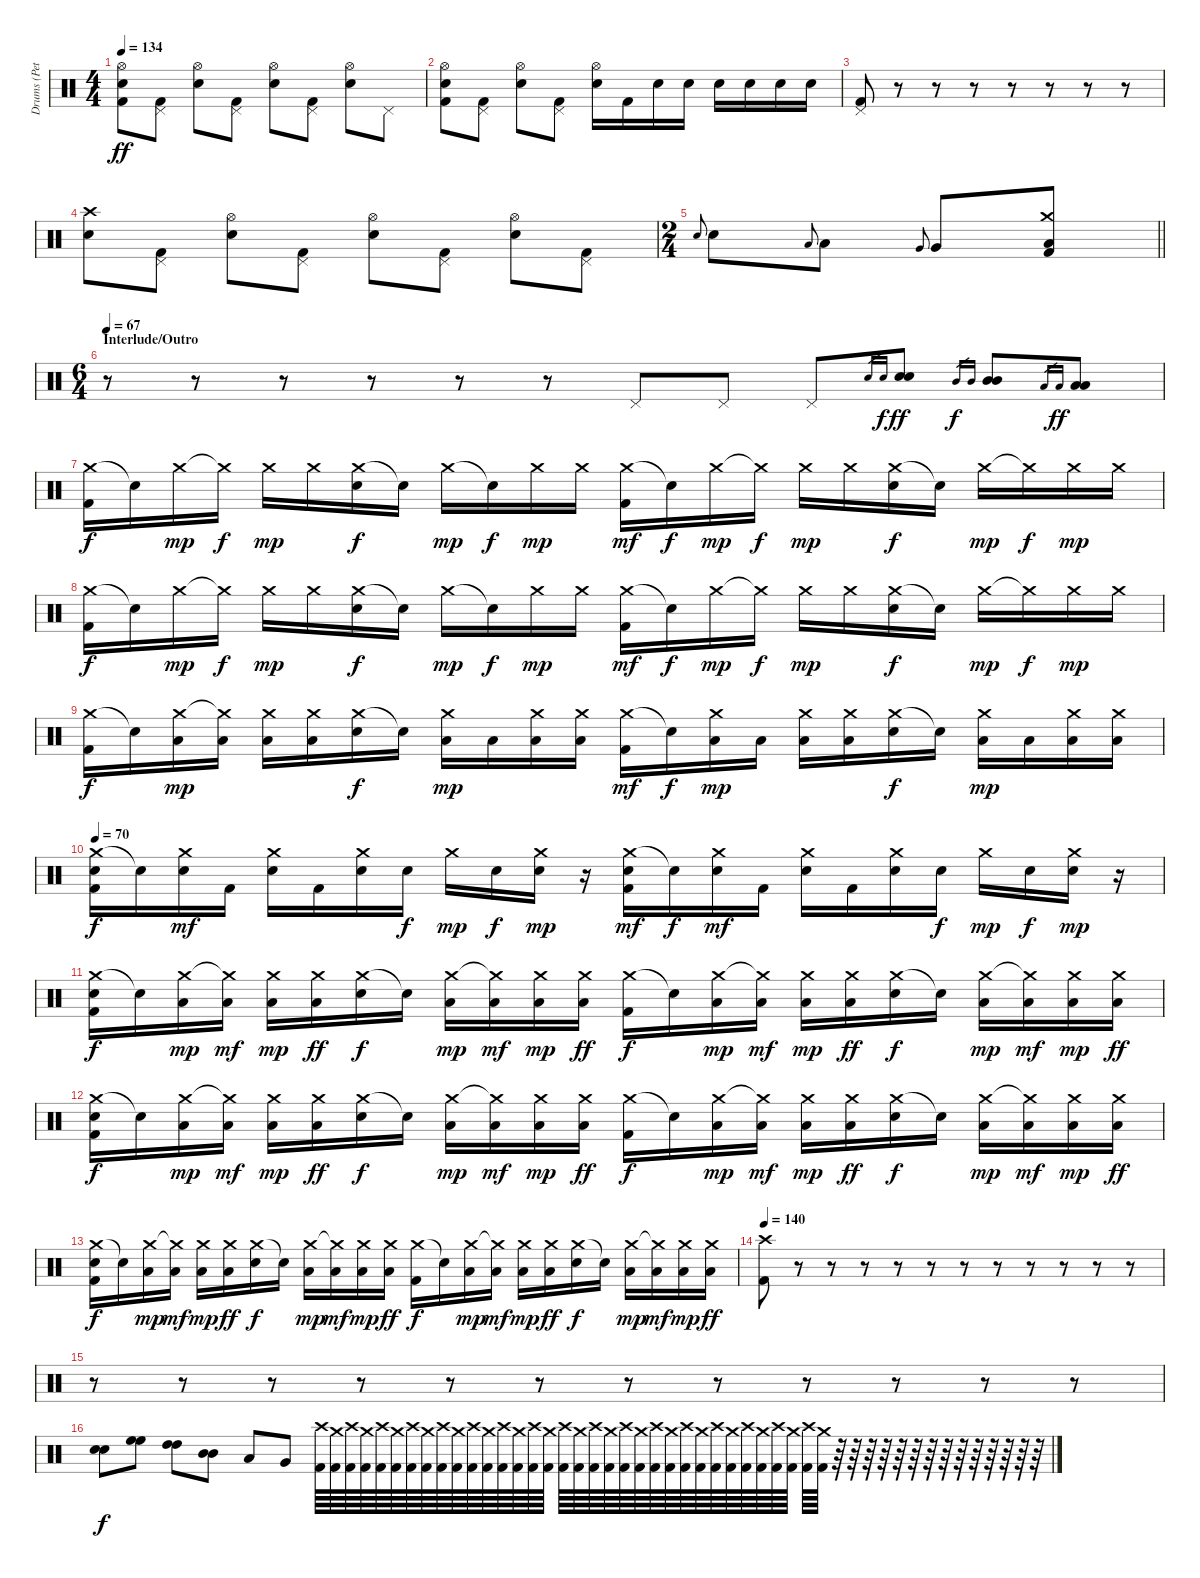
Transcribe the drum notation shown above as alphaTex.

\track ("Drums (Peter)" "Drums (Pet") {instrument percussion}
\staff {score}
\articulation defaults
\ts (4 4)
\tempo 134
\clef neutral
\ks c
("Hi-Hat (open)" "Electric Snare (hit)" "Kick (hit) 2").8{dy ff} ("Pedal Hi-Hat (hit)" "Kick (hit) 2").8 ("Hi-Hat (open)" "Electric Snare (hit)").8 ("Pedal Hi-Hat (hit)" "Kick (hit) 2").8 ("Hi-Hat (open)" "Electric Snare (hit)").8 ("Pedal Hi-Hat (hit)" "Kick (hit) 2").8 ("Hi-Hat (open)" "Electric Snare (hit)").8 "Pedal Hi-Hat (hit)".8 |
("Hi-Hat (open)" "Electric Snare (hit)" "Kick (hit) 2").8 ("Pedal Hi-Hat (hit)" "Kick (hit) 2").8 ("Hi-Hat (open)" "Electric Snare (hit)").8 ("Pedal Hi-Hat (hit)" "Kick (hit) 2").8 ("Hi-Hat (open)" "Electric Snare (hit)").16 "Kick (hit) 2".16 "Electric Snare (hit)".16 "Electric Snare (hit)".16 "Electric Snare (hit)".16 "Electric Snare (hit)".16 "Electric Snare (hit)".16 "Electric Snare (hit)".16 |
("Pedal Hi-Hat (hit)" "Kick (hit) 2").8 r.8 r.8 r.8 r.8 r.8 r.8 r.8 |
("Crash high (hit)" "Electric Snare (hit)").8 ("Pedal Hi-Hat (hit)" "Kick (hit) 2").8 ("Hi-Hat (open)" "Electric Snare (hit)").8 ("Pedal Hi-Hat (hit)" "Kick (hit) 2").8 ("Hi-Hat (open)" "Electric Snare (hit)").8 ("Pedal Hi-Hat (hit)" "Kick (hit) 2").8 ("Hi-Hat (open)" "Electric Snare (hit)").8 ("Pedal Hi-Hat (hit)" "Kick (hit) 2").8 |
\ts (2 4)
\barLineRight lightlight "Electric Snare (hit)".8{gr onbeat} "Electric Snare (hit)".8 "Low Tom (hit)".8{gr onbeat} "Low Tom (hit)".8 "Very Low Tom (hit)".8{gr onbeat} "Very Low Tom (hit)".8
("Crash medium (hit)" "Low Floor Tom (hit)" "Kick (hit) 2").8 |
\ts (6 4)
\section ("" "Interlude/Outro")
\tempo 67
r.8 r.8 r.8 r.8 r.8 r.8 "Pedal Hi-Hat (hit)".8 "Pedal Hi-Hat (hit)".8 "Pedal Hi-Hat (hit)".8 "Electric Snare (hit)".16{gr} "Electric Snare (hit)".16{gr dy f} ("Electric Snare (hit)" "Electric Snare (hit)").8{dy ff} "Mid Tom (hit)".16{gr dy f} "Mid Tom (hit)".16{gr} ("Mid Tom (hit)" "Mid Tom (hit)").8 "Low Tom (hit)".16{gr} "Low Tom (hit)".16{gr dy ff} ("Low Tom (hit)" "Low Tom (hit)").8 |
("Crash medium (hit)" "Kick (hit) 2").16{dy f} "Snare (hit)"{t}.16 "Crash medium (hit)".16{dy mp} "Crash medium (hit)"{t}.16{dy f} "Crash medium (hit)".16{dy mp} "Crash medium (hit)".16 ("Crash medium (hit)" "Electric Snare (hit)").16{dy f} "Snare (hit)"{t}.16 "Crash medium (hit)".16{dy mp} "Snare (hit)"{t}.16{dy f} "Crash medium (hit)".16{dy mp} "Crash medium (hit)".16 ("Crash medium (hit)" "Kick (hit) 2").16{dy mf} "Snare (hit)"{t}.16{dy f} "Crash medium (hit)".16{dy mp} "Crash medium (hit)"{t}.16{dy f} "Crash medium (hit)".16{dy mp} "Crash medium (hit)".16 ("Crash medium (hit)" "Electric Snare (hit)").16{dy f} "Snare (hit)"{t}.16 "Crash medium (hit)".16{dy mp} "Crash medium (hit)"{t}.16{dy f} "Crash medium (hit)".16{dy mp} "Crash medium (hit)".16 |
("Crash medium (hit)" "Kick (hit) 2").16{dy f} "Snare (hit)"{t}.16 "Crash medium (hit)".16{dy mp} "Crash medium (hit)"{t}.16{dy f} "Crash medium (hit)".16{dy mp} "Crash medium (hit)".16 ("Crash medium (hit)" "Electric Snare (hit)").16{dy f} "Snare (hit)"{t}.16 "Crash medium (hit)".16{dy mp} "Snare (hit)"{t}.16{dy f} "Crash medium (hit)".16{dy mp} "Crash medium (hit)".16 ("Crash medium (hit)" "Kick (hit) 2").16{dy mf} "Snare (hit)"{t}.16{dy f} "Crash medium (hit)".16{dy mp} "Crash medium (hit)"{t}.16{dy f} "Crash medium (hit)".16{dy mp} "Crash medium (hit)".16 ("Crash medium (hit)" "Electric Snare (hit)").16{dy f} "Snare (hit)"{t}.16 "Crash medium (hit)".16{dy mp} "Crash medium (hit)"{t}.16{dy f} "Crash medium (hit)".16{dy mp} "Crash medium (hit)".16 |
("Crash medium (hit)" "Kick (hit) 2").16{dy f} "Snare (hit)"{t}.16 ("Crash medium (hit)" "Low Floor Tom (hit)").16{dy mp} ("Crash medium (hit)"{t} "Low Floor Tom (hit)").16 ("Crash medium (hit)" "Low Floor Tom (hit)").16 ("Crash medium (hit)" "Low Floor Tom (hit)").16 ("Crash medium (hit)" "Electric Snare (hit)").16{dy f} "Snare (hit)"{t}.16 ("Crash medium (hit)" "Low Floor Tom (hit)").16{dy mp} "Low Floor Tom (hit)".16 ("Crash medium (hit)" "Low Floor Tom (hit)").16 ("Crash medium (hit)" "Low Floor Tom (hit)").16 ("Crash medium (hit)" "Kick (hit) 2").16{dy mf} "Snare (hit)"{t}.16{dy f} ("Crash medium (hit)" "Low Floor Tom (hit)").16{dy mp} "Low Floor Tom (hit)".16 ("Crash medium (hit)" "Low Floor Tom (hit)").16 ("Crash medium (hit)" "Low Floor Tom (hit)").16 ("Crash medium (hit)" "Electric Snare (hit)").16{dy f} "Snare (hit)"{t}.16 ("Crash medium (hit)" "Low Floor Tom (hit)").16{dy mp} "Low Floor Tom (hit)".16 ("Crash medium (hit)" "Low Floor Tom (hit)").16 ("Crash medium (hit)" "Low Floor Tom (hit)").16 |
\tempo 70
("Crash medium (hit)" "Electric Snare (hit)" "Kick (hit) 2").16{dy f} "Snare (hit)"{t}.16 ("Crash medium (hit)" "Electric Snare (hit)").16{dy mf} "Kick (hit) 2".16 ("Crash medium (hit)" "Electric Snare (hit)").16 "Kick (hit) 2".16 ("Crash medium (hit)" "Electric Snare (hit)").16 "Electric Snare (hit)".16{dy f} "Crash medium (hit)".16{dy mp} "Electric Snare (hit)".16{dy f} ("Crash medium (hit)" "Electric Snare (hit)").16{dy mp} r.16 ("Crash medium (hit)" "Electric Snare (hit)" "Kick (hit) 2").16{dy mf} "Snare (hit)"{t}.16{dy f} ("Crash medium (hit)" "Electric Snare (hit)").16{dy mf} "Kick (hit) 2".16 ("Crash medium (hit)" "Electric Snare (hit)").16 "Kick (hit) 2".16 ("Crash medium (hit)" "Electric Snare (hit)").16 "Electric Snare (hit)".16{dy f} "Crash medium (hit)".16{dy mp} "Electric Snare (hit)".16{dy f} ("Crash medium (hit)" "Electric Snare (hit)").16{dy mp} r.16 |
("Crash medium (hit)" "Electric Snare (hit)" "Kick (hit) 2").16{dy f} "Snare (hit)"{t}.16 ("Crash medium (hit)" "Low Floor Tom (hit)").16{dy mp} ("Crash medium (hit)"{t} "Low Floor Tom (hit)").16{dy mf} ("Crash medium (hit)" "Low Floor Tom (hit)").16{dy mp} ("Crash medium (hit)" "Low Floor Tom (hit)").16{dy ff} ("Crash medium (hit)" "Electric Snare (hit)").16{dy f} "Snare (hit)"{t}.16 ("Crash medium (hit)" "Low Floor Tom (hit)").16{dy mp} ("Crash medium (hit)"{t} "Low Floor Tom (hit)").16{dy mf} ("Crash medium (hit)" "Low Floor Tom (hit)").16{dy mp} ("Crash medium (hit)" "Low Floor Tom (hit)").16{dy ff} ("Crash medium (hit)" "Kick (hit) 2").16{dy f} "Snare (hit)"{t}.16 ("Crash medium (hit)" "Low Floor Tom (hit)").16{dy mp} ("Crash medium (hit)"{t} "Low Floor Tom (hit)").16{dy mf} ("Crash medium (hit)" "Low Floor Tom (hit)").16{dy mp} ("Crash medium (hit)" "Low Floor Tom (hit)").16{dy ff} ("Crash medium (hit)" "Electric Snare (hit)").16{dy f} "Snare (hit)"{t}.16 ("Crash medium (hit)" "Low Floor Tom (hit)").16{dy mp} ("Crash medium (hit)"{t} "Low Floor Tom (hit)").16{dy mf} ("Crash medium (hit)" "Low Floor Tom (hit)").16{dy mp} ("Crash medium (hit)" "Low Floor Tom (hit)").16{dy ff} |
("Crash medium (hit)" "Electric Snare (hit)" "Kick (hit) 2").16{dy f} "Snare (hit)"{t}.16 ("Crash medium (hit)" "Low Floor Tom (hit)").16{dy mp} ("Crash medium (hit)"{t} "Low Floor Tom (hit)").16{dy mf} ("Crash medium (hit)" "Low Floor Tom (hit)").16{dy mp} ("Crash medium (hit)" "Low Floor Tom (hit)").16{dy ff} ("Crash medium (hit)" "Electric Snare (hit)").16{dy f} "Snare (hit)"{t}.16 ("Crash medium (hit)" "Low Floor Tom (hit)").16{dy mp} ("Crash medium (hit)"{t} "Low Floor Tom (hit)").16{dy mf} ("Crash medium (hit)" "Low Floor Tom (hit)").16{dy mp} ("Crash medium (hit)" "Low Floor Tom (hit)").16{dy ff} ("Crash medium (hit)" "Kick (hit) 2").16{dy f} "Snare (hit)"{t}.16 ("Crash medium (hit)" "Low Floor Tom (hit)").16{dy mp} ("Crash medium (hit)"{t} "Low Floor Tom (hit)").16{dy mf} ("Crash medium (hit)" "Low Floor Tom (hit)").16{dy mp} ("Crash medium (hit)" "Low Floor Tom (hit)").16{dy ff} ("Crash medium (hit)" "Electric Snare (hit)").16{dy f} "Snare (hit)"{t}.16 ("Crash medium (hit)" "Low Floor Tom (hit)").16{dy mp} ("Crash medium (hit)"{t} "Low Floor Tom (hit)").16{dy mf} ("Crash medium (hit)" "Low Floor Tom (hit)").16{dy mp} ("Crash medium (hit)" "Low Floor Tom (hit)").16{dy ff} |
("Crash medium (hit)" "Electric Snare (hit)" "Kick (hit) 2").16{dy f} "Snare (hit)"{t}.16 ("Crash medium (hit)" "Low Floor Tom (hit)").16{dy mp} ("Crash medium (hit)"{t} "Low Floor Tom (hit)").16{dy mf} ("Crash medium (hit)" "Low Floor Tom (hit)").16{dy mp} ("Crash medium (hit)" "Low Floor Tom (hit)").16{dy ff} ("Crash medium (hit)" "Electric Snare (hit)").16{dy f} "Snare (hit)"{t}.16 ("Crash medium (hit)" "Low Floor Tom (hit)").16{dy mp} ("Crash medium (hit)"{t} "Low Floor Tom (hit)").16{dy mf} ("Crash medium (hit)" "Low Floor Tom (hit)").16{dy mp} ("Crash medium (hit)" "Low Floor Tom (hit)").16{dy ff} ("Crash medium (hit)" "Kick (hit) 2").16{dy f} "Snare (hit)"{t}.16 ("Crash medium (hit)" "Low Floor Tom (hit)").16{dy mp} ("Crash medium (hit)"{t} "Low Floor Tom (hit)").16{dy mf} ("Crash medium (hit)" "Low Floor Tom (hit)").16{dy mp} ("Crash medium (hit)" "Low Floor Tom (hit)").16{dy ff} ("Crash medium (hit)" "Electric Snare (hit)").16{dy f} "Snare (hit)"{t}.16 ("Crash medium (hit)" "Low Floor Tom (hit)").16{dy mp} ("Crash medium (hit)"{t} "Low Floor Tom (hit)").16{dy mf} ("Crash medium (hit)" "Low Floor Tom (hit)").16{dy mp} ("Crash medium (hit)" "Low Floor Tom (hit)").16{dy ff} |
\tempo 140
("Crash high (hit)" "Kick (hit) 2").8 r.8 r.8 r.8 r.8 r.8 r.8 r.8 r.8 r.8 r.8 r.8 |
r.8 r.8 r.8 r.8 r.8 r.8 r.8 r.8 r.8 r.8 r.8 r.8 |
("Electric Snare (hit)" "Electric Snare (hit)").8{dy f} ("High Floor Tom (hit)" "High Floor Tom (hit)").8 ("High Tom (hit)" "High Tom (hit)").8 ("Mid Tom (hit)" "Mid Tom (hit)").8 "Low Tom (hit)".8 "Very Low Tom (hit)".8 ("Crash high (hit)" "Kick (hit) 2").64 ("Crash medium (hit)" "Kick (hit) 2").64 ("Crash high (hit)" "Kick (hit) 2").64 ("Crash medium (hit)" "Kick (hit) 2").64 ("Crash high (hit)" "Kick (hit) 2").64 ("Crash medium (hit)" "Kick (hit) 2").64 ("Crash high (hit)" "Kick (hit) 2").64 ("Crash medium (hit)" "Kick (hit) 2").64 ("Crash high (hit)" "Kick (hit) 2").64 ("Crash medium (hit)" "Kick (hit) 2").64 ("Crash high (hit)" "Kick (hit) 2").64 ("Crash medium (hit)" "Kick (hit) 2").64 ("Crash high (hit)" "Kick (hit) 2").64 ("Crash medium (hit)" "Kick (hit) 2").64 ("Crash high (hit)" "Kick (hit) 2").64 ("Crash medium (hit)" "Kick (hit) 2").64 ("Crash high (hit)" "Kick (hit) 2").64 ("Crash medium (hit)" "Kick (hit) 2").64 ("Crash high (hit)" "Kick (hit) 2").64 ("Crash medium (hit)" "Kick (hit) 2").64 ("Crash high (hit)" "Kick (hit) 2").64 ("Crash medium (hit)" "Kick (hit) 2").64 ("Crash high (hit)" "Kick (hit) 2").64 ("Crash medium (hit)" "Kick (hit) 2").64 ("Crash high (hit)" "Kick (hit) 2").64 ("Crash medium (hit)" "Kick (hit) 2").64 ("Crash high (hit)" "Kick (hit) 2").64 ("Crash medium (hit)" "Kick (hit) 2").64 ("Crash high (hit)" "Kick (hit) 2").64 ("Crash medium (hit)" "Kick (hit) 2").64 ("Crash high (hit)" "Kick (hit) 2").64 ("Crash medium (hit)" "Kick (hit) 2").64 ("Crash high (hit)" "Kick (hit) 2").64 ("Crash medium (hit)" "Kick (hit) 2").64 r.64 r.64 r.64 r.64 r.64 r.64 r.64 r.64 r.64 r.64 r.64 r.64 r.64 r.64
